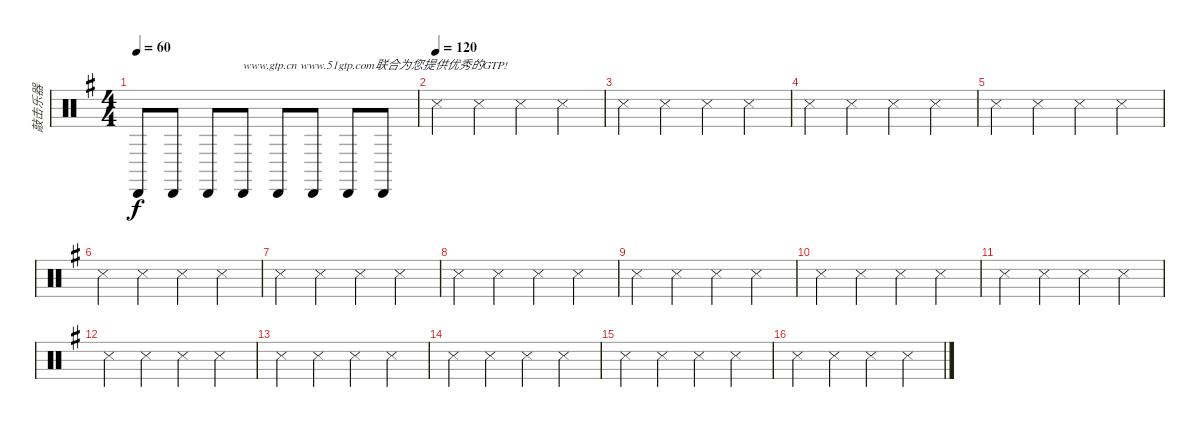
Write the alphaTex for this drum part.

\track ("敲击乐器" "敲击乐器") {instrument percussion}
\staff {score}
\articulation defaults
\ts (4 4)
\tempo 60
\clef neutral
\ks g "Cabasa (hit)".8{dy f} "Cabasa (hit)".8 "Cabasa (hit)".8 "Cabasa (hit)".8{txt "www.gtp.cn www.51gtp.com联合为您提供优秀的GTP!"} "Cabasa (hit)".8 "Cabasa (hit)".8 "Cabasa (hit)".8 "Cabasa (hit)".8
|
\tempo (120)
"Snare (side stick) 3".4 "Snare (side stick) 3".4 "Snare (side stick) 3".4 "Snare (side stick) 3".4 |
"Snare (side stick) 3".4 "Snare (side stick) 3".4 "Snare (side stick) 3".4 "Snare (side stick) 3".4 |
"Snare (side stick) 3".4 "Snare (side stick) 3".4 "Snare (side stick) 3".4 "Snare (side stick) 3".4 |
"Snare (side stick) 3".4 "Snare (side stick) 3".4 "Snare (side stick) 3".4 "Snare (side stick) 3".4 |
"Snare (side stick) 3".4 "Snare (side stick) 3".4 "Snare (side stick) 3".4 "Snare (side stick) 3".4 |
"Snare (side stick) 3".4 "Snare (side stick) 3".4 "Snare (side stick) 3".4 "Snare (side stick) 3".4 |
"Snare (side stick) 3".4 "Snare (side stick) 3".4 "Snare (side stick) 3".4 "Snare (side stick) 3".4 |
"Snare (side stick) 3".4 "Snare (side stick) 3".4 "Snare (side stick) 3".4 "Snare (side stick) 3".4 |
"Snare (side stick) 3".4 "Snare (side stick) 3".4 "Snare (side stick) 3".4 "Snare (side stick) 3".4 |
"Snare (side stick) 3".4 "Snare (side stick) 3".4 "Snare (side stick) 3".4 "Snare (side stick) 3".4 |
"Snare (side stick) 3".4 "Snare (side stick) 3".4 "Snare (side stick) 3".4 "Snare (side stick) 3".4 |
"Snare (side stick) 3".4 "Snare (side stick) 3".4 "Snare (side stick) 3".4 "Snare (side stick) 3".4 |
"Snare (side stick) 3".4 "Snare (side stick) 3".4 "Snare (side stick) 3".4 "Snare (side stick) 3".4 |
"Snare (side stick) 3".4 "Snare (side stick) 3".4 "Snare (side stick) 3".4 "Snare (side stick) 3".4 |
"Snare (side stick) 3".4 "Snare (side stick) 3".4 "Snare (side stick) 3".4 "Snare (side stick) 3".4
